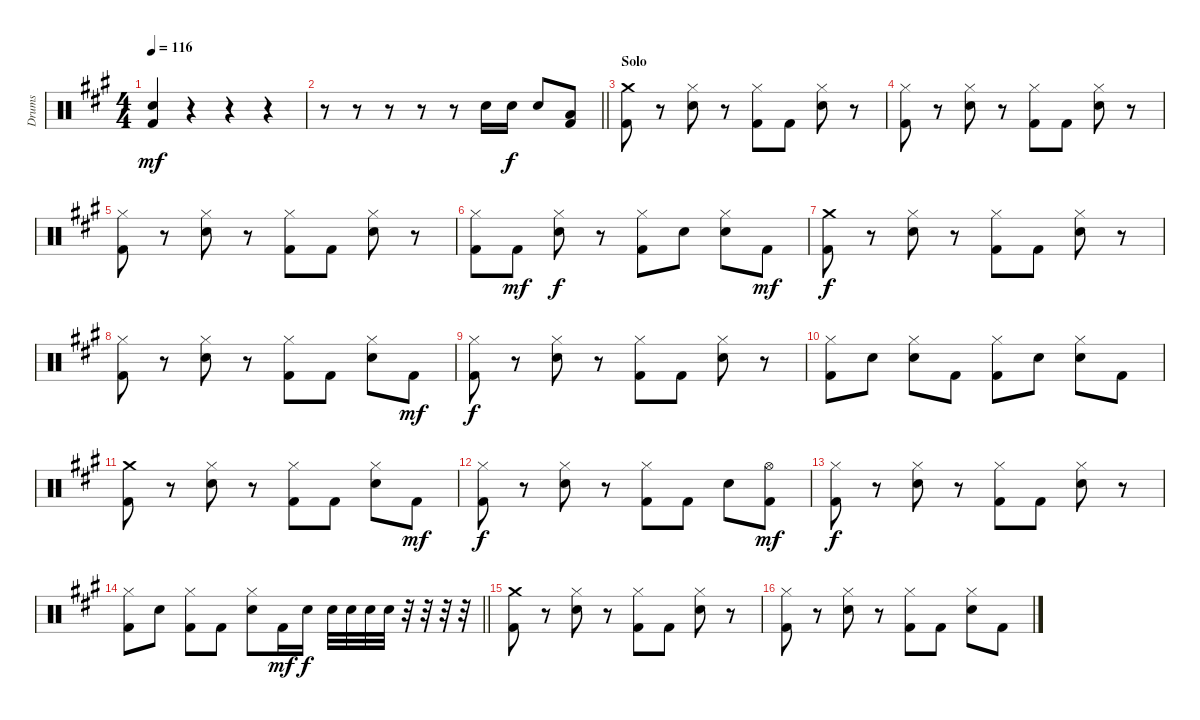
\track ("Drums" "Drums") {instrument percussion}
\staff {score}
\articulation defaults
\ts (4 4)
\tempo 116
\clef neutral
\ks a
("Kick (hit) 2" "Snare (hit) 2").4{dy mf} r.4 r.4 r.4 |
\barLineRight lightlight
r.8 r.8 r.8 r.8 r.8 "Snare (hit) 2".16 "Snare (hit) 2".16{dy f} "Snare (hit) 2".8 ("Low Floor Tom (hit)" "Kick (hit) 2").8 |
\section ("" "Solo")
("Crash medium (hit)" "Kick (hit) 2").8 r.8 ("Snare (hit) 2" "Hi-Hat (closed)").8 r.8 ("Kick (hit) 2" "Hi-Hat (closed)").8 "Kick (hit) 2".8 ("Snare (hit) 2" "Hi-Hat (closed)").8 r.8 |
("Kick (hit) 2" "Hi-Hat (closed)").8 r.8 ("Snare (hit) 2" "Hi-Hat (closed)").8 r.8 ("Kick (hit) 2" "Hi-Hat (closed)").8 "Kick (hit) 2".8 ("Snare (hit) 2" "Hi-Hat (closed)").8 r.8 |
("Kick (hit) 2" "Hi-Hat (closed)").8 r.8 ("Snare (hit) 2" "Hi-Hat (closed)").8 r.8 ("Kick (hit) 2" "Hi-Hat (closed)").8 "Kick (hit) 2".8 ("Snare (hit) 2" "Hi-Hat (closed)").8 r.8 |
("Kick (hit) 2" "Hi-Hat (closed)").8 "Kick (hit) 2".8{dy mf} ("Snare (hit) 2" "Hi-Hat (closed)").8{dy f} r.8 ("Kick (hit) 2" "Hi-Hat (closed)").8 "Snare (hit) 2".8 ("Snare (hit) 2" "Hi-Hat (closed)").8 "Kick (hit) 2".8{dy mf} |
("Crash medium (hit)" "Kick (hit) 2").8{dy f} r.8 ("Snare (hit) 2" "Hi-Hat (closed)").8 r.8 ("Kick (hit) 2" "Hi-Hat (closed)").8 "Kick (hit) 2".8 ("Snare (hit) 2" "Hi-Hat (closed)").8 r.8 |
("Kick (hit) 2" "Hi-Hat (closed)").8 r.8 ("Snare (hit) 2" "Hi-Hat (closed)").8 r.8 ("Kick (hit) 2" "Hi-Hat (closed)").8 "Kick (hit) 2".8 ("Snare (hit) 2" "Hi-Hat (closed)").8 "Kick (hit) 2".8{dy mf} |
("Kick (hit) 2" "Hi-Hat (closed)").8{dy f} r.8 ("Snare (hit) 2" "Hi-Hat (closed)").8 r.8 ("Kick (hit) 2" "Hi-Hat (closed)").8 "Kick (hit) 2".8 ("Snare (hit) 2" "Hi-Hat (closed)").8 r.8 |
("Kick (hit) 2" "Hi-Hat (closed)").8 "Snare (hit) 2".8 ("Snare (hit) 2" "Hi-Hat (closed)").8 "Kick (hit) 2".8 ("Kick (hit) 2" "Hi-Hat (closed)").8 "Snare (hit) 2".8 ("Snare (hit) 2" "Hi-Hat (closed)").8 "Kick (hit) 2".8 |
("Kick (hit) 2" "Crash medium (hit)").8 r.8 ("Snare (hit) 2" "Hi-Hat (closed)").8 r.8 ("Kick (hit) 2" "Hi-Hat (closed)").8 "Kick (hit) 2".8 ("Snare (hit) 2" "Hi-Hat (closed)").8 "Kick (hit) 2".8{dy mf} |
("Kick (hit) 2" "Hi-Hat (closed)").8{dy f} r.8 ("Snare (hit) 2" "Hi-Hat (closed)").8 r.8 ("Kick (hit) 2" "Hi-Hat (closed)").8 "Kick (hit) 2".8 "Snare (hit) 2".8 ("Kick (hit) 2" "Hi-Hat (open)").8{dy mf} |
("Kick (hit) 2" "Hi-Hat (closed)").8{dy f} r.8 ("Snare (hit) 2" "Hi-Hat (closed)").8 r.8 ("Kick (hit) 2" "Hi-Hat (closed)").8 "Kick (hit) 2".8 ("Snare (hit) 2" "Hi-Hat (closed)").8 r.8 |
\barLineRight lightlight
("Kick (hit) 2" "Hi-Hat (closed)").8 "Snare (hit) 2".8 ("Kick (hit) 2" "Hi-Hat (closed)").8 "Kick (hit) 2".8 ("Snare (hit) 2" "Hi-Hat (closed)").8 "Kick (hit) 2".16{dy mf} "Snare (hit) 2".16{dy f} "Snare (hit) 2".32 "Snare (hit) 2".32 "Snare (hit) 2".32 "Snare (hit) 2".32 r.32 r.32 r.32 r.32 |
("Crash medium (hit)" "Kick (hit) 2").8 r.8 ("Snare (hit) 2" "Hi-Hat (closed)").8 r.8 ("Kick (hit) 2" "Hi-Hat (closed)").8 "Kick (hit) 2".8 ("Snare (hit) 2" "Hi-Hat (closed)").8 r.8 |
("Kick (hit) 2" "Hi-Hat (closed)").8 r.8 ("Snare (hit) 2" "Hi-Hat (closed)").8 r.8 ("Kick (hit) 2" "Hi-Hat (closed)").8 "Kick (hit) 2".8 ("Snare (hit) 2" "Hi-Hat (closed)").8 "Kick (hit) 2".8
